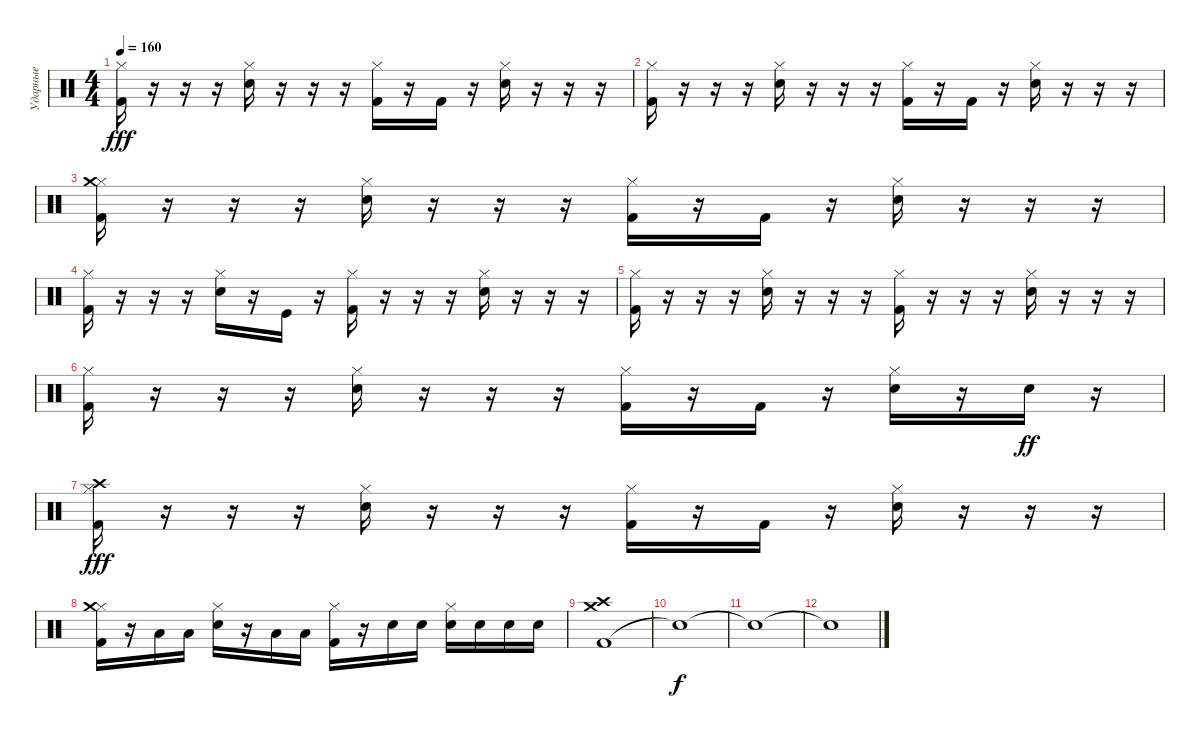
\track ("Ударные" "Ударные") {instrument percussion}
\staff {score}
\articulation defaults
\ts (4 4)
\tempo 160
\clef neutral
\ks c
("Kick (hit) 2" "Hi-Hat (closed)").16{dy fff} r.16 r.16 r.16 ("Snare (hit) 2" "Hi-Hat (closed)").16 r.16 r.16 r.16 ("Kick (hit) 2" "Hi-Hat (closed)").16 r.16 "Kick (hit) 2".16 r.16 ("Snare (hit) 2" "Hi-Hat (closed)").16 r.16 r.16 r.16 |
("Kick (hit) 2" "Hi-Hat (closed)").16 r.16 r.16 r.16 ("Snare (hit) 2" "Hi-Hat (closed)").16 r.16 r.16 r.16 ("Kick (hit) 2" "Hi-Hat (closed)").16 r.16 "Kick (hit) 2".16 r.16 ("Snare (hit) 2" "Hi-Hat (closed)").16 r.16 r.16 r.16 |
("Kick (hit) 2" "Hi-Hat (closed)" "Crash medium (hit)").16 r.16 r.16 r.16 ("Snare (hit) 2" "Hi-Hat (closed)").16 r.16 r.16 r.16 ("Kick (hit) 2" "Hi-Hat (closed)").16 r.16 "Kick (hit) 2".16 r.16 ("Snare (hit) 2" "Hi-Hat (closed)").16 r.16 r.16 r.16 |
("Kick (hit) 2" "Hi-Hat (closed)").16 r.16 r.16 r.16 ("Snare (hit) 2" "Hi-Hat (closed)").16 r.16 "Kick (hit)".16 r.16 ("Kick (hit) 2" "Hi-Hat (closed)").16 r.16 r.16 r.16 ("Snare (hit) 2" "Hi-Hat (closed)").16 r.16 r.16 r.16 |
("Kick (hit) 2" "Hi-Hat (closed)").16 r.16 r.16 r.16 ("Snare (hit) 2" "Hi-Hat (closed)").16 r.16 r.16 r.16 ("Kick (hit) 2" "Hi-Hat (closed)").16 r.16 r.16 r.16 ("Snare (hit) 2" "Hi-Hat (closed)").16 r.16 r.16 r.16 |
("Kick (hit) 2" "Hi-Hat (closed)").16 r.16 r.16 r.16 ("Snare (hit) 2" "Hi-Hat (closed)").16 r.16 r.16 r.16 ("Kick (hit) 2" "Hi-Hat (closed)").16 r.16 "Kick (hit) 2".16 r.16 ("Snare (hit) 2" "Hi-Hat (closed)").16 r.16 "Snare (hit) 2".16{dy ff} r.16 |
("Kick (hit) 2" "Hi-Hat (closed)" "Crash high (hit)").16{dy fff} r.16 r.16 r.16 ("Snare (hit) 2" "Hi-Hat (closed)").16 r.16 r.16 r.16 ("Kick (hit) 2" "Hi-Hat (closed)").16 r.16 "Kick (hit) 2".16 r.16 ("Snare (hit) 2" "Hi-Hat (closed)").16 r.16 r.16 r.16 |
("Kick (hit) 2" "Hi-Hat (closed)" "Crash medium (hit)").16 r.16 "Low Tom (hit)".16 "Low Tom (hit)".16 ("Snare (hit) 2" "Hi-Hat (closed)").16 r.16 "Low Tom (hit)".16 "Low Tom (hit)".16 ("Kick (hit) 2" "Hi-Hat (closed)").16 r.16 "Electric Snare (hit)".16 "Electric Snare (hit)".16 ("Electric Snare (hit)" "Hi-Hat (closed)").16 "Electric Snare (hit)".16 "Electric Snare (hit)".16 "Electric Snare (hit)".16 |
("Kick (hit) 2" "Crash high (hit)" "Crash medium (hit)").1 |
"Snare (hit)"{t}.1{dy f} |
"Snare (hit)"{t}.1 |
"Snare (hit)"{t}.1
